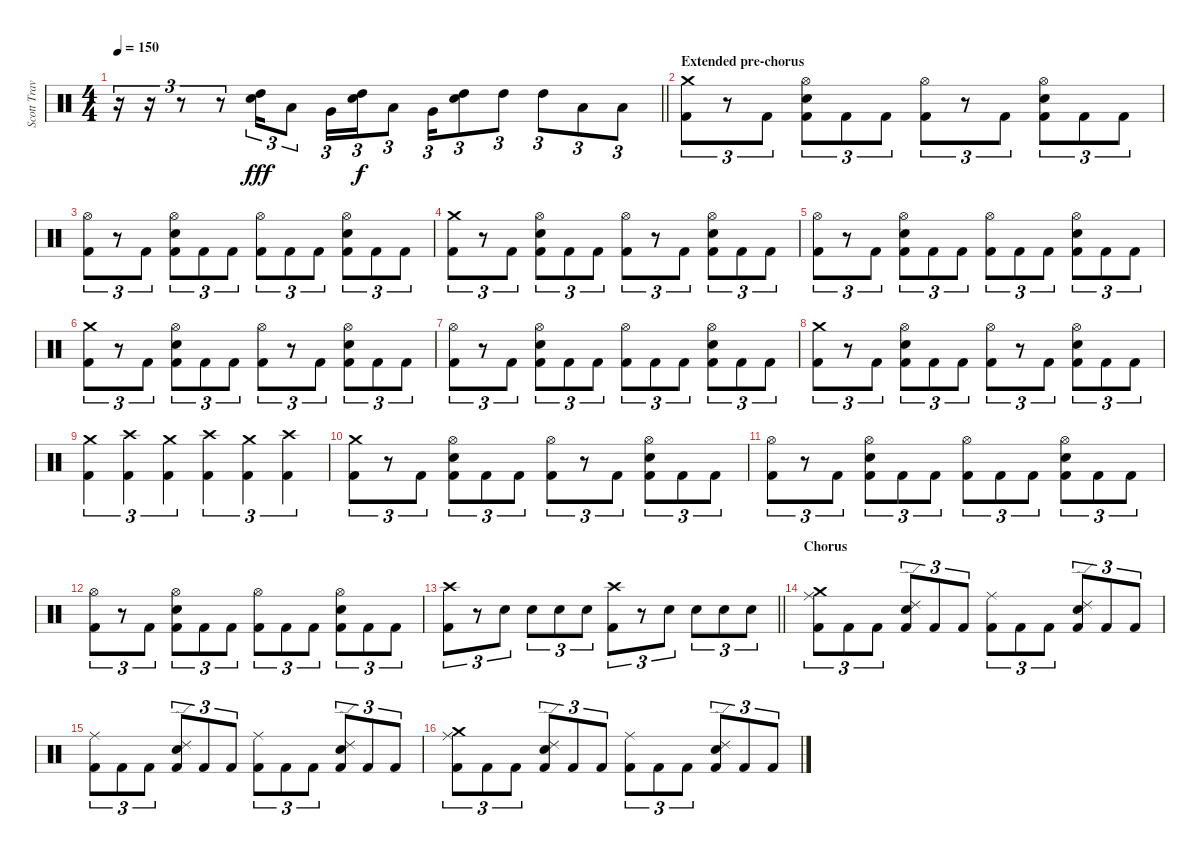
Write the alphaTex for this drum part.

\track ("Scott Travis" "Scott Trav") {instrument percussion}
\staff {score}
\articulation defaults
\ts (4 4)
\tempo 150
\clef neutral
\barLineRight lightlight
\ks c
r.16{tu (3 2) dy f} r.16{tu (3 2)} r.8{tu (3 2)} r.8{tu (3 2)} ("High Tom (hit)" "Snare (hit) 2").16{tu (3 2) dy fff} "Low Tom (hit)".8{tu (3 2)} "Very Low Tom (hit)".16{tu (3 2)} ("High Tom (hit)" "Snare (hit) 2").16{tu (3 2) dy f} "Low Tom (hit)".8{tu (3 2)} "Very Low Tom (hit)".16{tu (3 2)} ("High Tom (hit)" "Snare (hit) 2").8{tu (3 2)} "High Tom (hit)".8{tu (3 2)} "High Tom (hit)".8{tu (3 2)} "Low Tom (hit)".8{tu (3 2)} "Low Tom (hit)".8{tu (3 2)} |
\section ("" "Extended pre-chorus")
("Crash medium (hit)" "Kick (hit) 2").8{tu (3 2)} r.8{tu (3 2)} "Kick (hit) 2".8{tu (3 2)} ("Hi-Hat (open)" "Snare (hit) 2" "Kick (hit) 2").8{tu (3 2)} "Kick (hit) 2".8{tu (3 2)} "Kick (hit) 2".8{tu (3 2)} ("Hi-Hat (open)" "Kick (hit) 2").8{tu (3 2)} r.8{tu (3 2)} "Kick (hit) 2".8{tu (3 2)} ("Hi-Hat (open)" "Snare (hit) 2" "Kick (hit) 2").8{tu (3 2)} "Kick (hit) 2".8{tu (3 2)} "Kick (hit) 2".8{tu (3 2)} |
("Hi-Hat (open)" "Kick (hit) 2").8{tu (3 2)} r.8{tu (3 2)} "Kick (hit) 2".8{tu (3 2)} ("Hi-Hat (open)" "Snare (hit) 2" "Kick (hit) 2").8{tu (3 2)} "Kick (hit) 2".8{tu (3 2)} "Kick (hit) 2".8{tu (3 2)} ("Hi-Hat (open)" "Kick (hit) 2").8{tu (3 2)} "Kick (hit) 2".8{tu (3 2)} "Kick (hit) 2".8{tu (3 2)} ("Hi-Hat (open)" "Snare (hit) 2" "Kick (hit) 2").8{tu (3 2)} "Kick (hit) 2".8{tu (3 2)} "Kick (hit) 2".8{tu (3 2)} |
("Crash medium (hit)" "Kick (hit) 2").8{tu (3 2)} r.8{tu (3 2)} "Kick (hit) 2".8{tu (3 2)} ("Hi-Hat (open)" "Snare (hit) 2" "Kick (hit) 2").8{tu (3 2)} "Kick (hit) 2".8{tu (3 2)} "Kick (hit) 2".8{tu (3 2)} ("Hi-Hat (open)" "Kick (hit) 2").8{tu (3 2)} r.8{tu (3 2)} "Kick (hit) 2".8{tu (3 2)} ("Hi-Hat (open)" "Snare (hit) 2" "Kick (hit) 2").8{tu (3 2)} "Kick (hit) 2".8{tu (3 2)} "Kick (hit) 2".8{tu (3 2)} |
("Hi-Hat (open)" "Kick (hit) 2").8{tu (3 2)} r.8{tu (3 2)} "Kick (hit) 2".8{tu (3 2)} ("Hi-Hat (open)" "Snare (hit) 2" "Kick (hit) 2").8{tu (3 2)} "Kick (hit) 2".8{tu (3 2)} "Kick (hit) 2".8{tu (3 2)} ("Hi-Hat (open)" "Kick (hit) 2").8{tu (3 2)} "Kick (hit) 2".8{tu (3 2)} "Kick (hit) 2".8{tu (3 2)} ("Hi-Hat (open)" "Snare (hit) 2" "Kick (hit) 2").8{tu (3 2)} "Kick (hit) 2".8{tu (3 2)} "Kick (hit) 2".8{tu (3 2)} |
("Crash medium (hit)" "Kick (hit) 2").8{tu (3 2)} r.8{tu (3 2)} "Kick (hit) 2".8{tu (3 2)} ("Hi-Hat (open)" "Snare (hit) 2" "Kick (hit) 2").8{tu (3 2)} "Kick (hit) 2".8{tu (3 2)} "Kick (hit) 2".8{tu (3 2)} ("Hi-Hat (open)" "Kick (hit) 2").8{tu (3 2)} r.8{tu (3 2)} "Kick (hit) 2".8{tu (3 2)} ("Hi-Hat (open)" "Snare (hit) 2" "Kick (hit) 2").8{tu (3 2)} "Kick (hit) 2".8{tu (3 2)} "Kick (hit) 2".8{tu (3 2)} |
("Hi-Hat (open)" "Kick (hit) 2").8{tu (3 2)} r.8{tu (3 2)} "Kick (hit) 2".8{tu (3 2)} ("Hi-Hat (open)" "Snare (hit) 2" "Kick (hit) 2").8{tu (3 2)} "Kick (hit) 2".8{tu (3 2)} "Kick (hit) 2".8{tu (3 2)} ("Hi-Hat (open)" "Kick (hit) 2").8{tu (3 2)} "Kick (hit) 2".8{tu (3 2)} "Kick (hit) 2".8{tu (3 2)} ("Hi-Hat (open)" "Snare (hit) 2" "Kick (hit) 2").8{tu (3 2)} "Kick (hit) 2".8{tu (3 2)} "Kick (hit) 2".8{tu (3 2)} |
("Crash medium (hit)" "Kick (hit) 2").8{tu (3 2)} r.8{tu (3 2)} "Kick (hit) 2".8{tu (3 2)} ("Hi-Hat (open)" "Snare (hit) 2" "Kick (hit) 2").8{tu (3 2)} "Kick (hit) 2".8{tu (3 2)} "Kick (hit) 2".8{tu (3 2)} ("Hi-Hat (open)" "Kick (hit) 2").8{tu (3 2)} r.8{tu (3 2)} "Kick (hit) 2".8{tu (3 2)} ("Hi-Hat (open)" "Snare (hit) 2" "Kick (hit) 2").8{tu (3 2)} "Kick (hit) 2".8{tu (3 2)} "Kick (hit) 2".8{tu (3 2)} |
("Crash medium (hit)" "Kick (hit) 2").4{tu (3 2)} ("Crash high (hit)" "Kick (hit) 2").4{tu (3 2)} ("Crash medium (hit)" "Kick (hit) 2").4{tu (3 2)} ("Crash high (hit)" "Kick (hit) 2").4{tu (3 2)} ("Crash medium (hit)" "Kick (hit) 2").4{tu (3 2)} ("Crash high (hit)" "Kick (hit) 2").4{tu (3 2)} |
("Crash medium (hit)" "Kick (hit) 2").8{tu (3 2)} r.8{tu (3 2)} "Kick (hit) 2".8{tu (3 2)} ("Hi-Hat (open)" "Snare (hit) 2" "Kick (hit) 2").8{tu (3 2)} "Kick (hit) 2".8{tu (3 2)} "Kick (hit) 2".8{tu (3 2)} ("Hi-Hat (open)" "Kick (hit) 2").8{tu (3 2)} r.8{tu (3 2)} "Kick (hit) 2".8{tu (3 2)} ("Hi-Hat (open)" "Snare (hit) 2" "Kick (hit) 2").8{tu (3 2)} "Kick (hit) 2".8{tu (3 2)} "Kick (hit) 2".8{tu (3 2)} |
("Hi-Hat (open)" "Kick (hit) 2").8{tu (3 2)} r.8{tu (3 2)} "Kick (hit) 2".8{tu (3 2)} ("Hi-Hat (open)" "Snare (hit) 2" "Kick (hit) 2").8{tu (3 2)} "Kick (hit) 2".8{tu (3 2)} "Kick (hit) 2".8{tu (3 2)} ("Hi-Hat (open)" "Kick (hit) 2").8{tu (3 2)} "Kick (hit) 2".8{tu (3 2)} "Kick (hit) 2".8{tu (3 2)} ("Hi-Hat (open)" "Snare (hit) 2" "Kick (hit) 2").8{tu (3 2)} "Kick (hit) 2".8{tu (3 2)} "Kick (hit) 2".8{tu (3 2)} |
("Hi-Hat (open)" "Kick (hit) 2").8{tu (3 2)} r.8{tu (3 2)} "Kick (hit) 2".8{tu (3 2)} ("Hi-Hat (open)" "Snare (hit) 2" "Kick (hit) 2").8{tu (3 2)} "Kick (hit) 2".8{tu (3 2)} "Kick (hit) 2".8{tu (3 2)} ("Hi-Hat (open)" "Kick (hit) 2").8{tu (3 2)} "Kick (hit) 2".8{tu (3 2)} "Kick (hit) 2".8{tu (3 2)} ("Hi-Hat (open)" "Snare (hit) 2" "Kick (hit) 2").8{tu (3 2)} "Kick (hit) 2".8{tu (3 2)} "Kick (hit) 2".8{tu (3 2)} |
\barLineRight lightlight
("Crash high (hit)" "Kick (hit) 2").8{tu (3 2)} r.8{tu (3 2)} "Snare (hit) 2".8{tu (3 2)} "Snare (hit) 2".8{tu (3 2)} "Snare (hit) 2".8{tu (3 2)} "Snare (hit) 2".8{tu (3 2)} ("Crash high (hit)" "Kick (hit) 2").8{tu (3 2)} r.8{tu (3 2)} "Snare (hit) 2".8{tu (3 2)} "Snare (hit) 2".8{tu (3 2)} "Snare (hit) 2".8{tu (3 2)} "Snare (hit) 2".8{tu (3 2)} |
\section ("" "Chorus")
("Ride (middle)" "Crash medium (hit)" "Kick (hit) 2").8{tu (3 2)} "Kick (hit) 2".8{tu (3 2)} "Kick (hit) 2".8{tu (3 2)} ("Ride (edge) 2" "Snare (hit) 2" "Kick (hit) 2").8{tu (3 2)} "Kick (hit) 2".8{tu (3 2)} "Kick (hit) 2".8{tu (3 2)} ("Ride (middle)" "Kick (hit) 2").8{tu (3 2)} "Kick (hit) 2".8{tu (3 2)} "Kick (hit) 2".8{tu (3 2)} ("Ride (edge) 2" "Snare (hit) 2" "Kick (hit) 2").8{tu (3 2)} "Kick (hit) 2".8{tu (3 2)} "Kick (hit) 2".8{tu (3 2)} |
("Ride (middle)" "Kick (hit) 2").8{tu (3 2)} "Kick (hit) 2".8{tu (3 2)} "Kick (hit) 2".8{tu (3 2)} ("Ride (edge) 2" "Snare (hit) 2" "Kick (hit) 2").8{tu (3 2)} "Kick (hit) 2".8{tu (3 2)} "Kick (hit) 2".8{tu (3 2)} ("Ride (middle)" "Kick (hit) 2").8{tu (3 2)} "Kick (hit) 2".8{tu (3 2)} "Kick (hit) 2".8{tu (3 2)} ("Ride (edge) 2" "Snare (hit) 2" "Kick (hit) 2").8{tu (3 2)} "Kick (hit) 2".8{tu (3 2)} "Kick (hit) 2".8{tu (3 2)} |
("Ride (middle)" "Crash medium (hit)" "Kick (hit) 2").8{tu (3 2)} "Kick (hit) 2".8{tu (3 2)} "Kick (hit) 2".8{tu (3 2)} ("Ride (edge) 2" "Snare (hit) 2" "Kick (hit) 2").8{tu (3 2)} "Kick (hit) 2".8{tu (3 2)} "Kick (hit) 2".8{tu (3 2)} ("Ride (middle)" "Kick (hit) 2").8{tu (3 2)} "Kick (hit) 2".8{tu (3 2)} "Kick (hit) 2".8{tu (3 2)} ("Ride (edge) 2" "Snare (hit) 2" "Kick (hit) 2").8{tu (3 2)} "Kick (hit) 2".8{tu (3 2)} "Kick (hit) 2".8{tu (3 2)}
